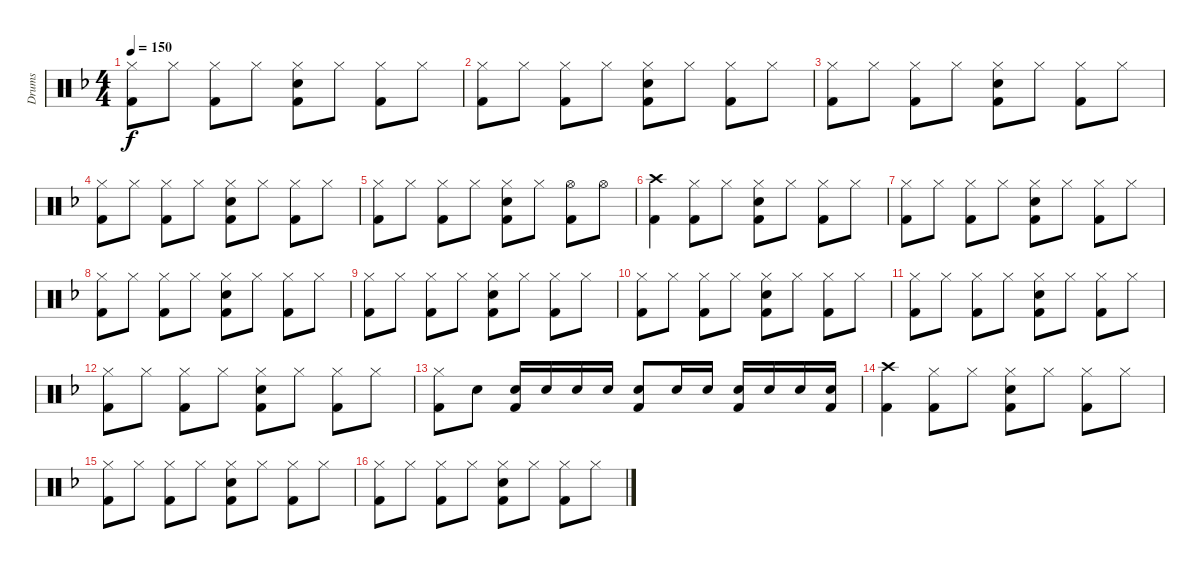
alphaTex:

\track ("Drums" "Drums") {instrument percussion}
\staff {score}
\articulation defaults
\ts (4 4)
\tempo 150
\clef neutral
\ks f
("Hi-Hat (closed)" "Kick (hit) 2").8{dy f} "Hi-Hat (closed)".8 ("Hi-Hat (closed)" "Kick (hit) 2").8 "Hi-Hat (closed)".8 ("Hi-Hat (closed)" "Electric Snare (hit)" "Kick (hit) 2").8 "Hi-Hat (closed)".8 ("Hi-Hat (closed)" "Kick (hit) 2").8 "Hi-Hat (closed)".8 |
("Hi-Hat (closed)" "Kick (hit) 2").8 "Hi-Hat (closed)".8 ("Hi-Hat (closed)" "Kick (hit) 2").8 "Hi-Hat (closed)".8 ("Hi-Hat (closed)" "Electric Snare (hit)" "Kick (hit) 2").8 "Hi-Hat (closed)".8 ("Hi-Hat (closed)" "Kick (hit) 2").8 "Hi-Hat (closed)".8 |
("Hi-Hat (closed)" "Kick (hit) 2").8 "Hi-Hat (closed)".8 ("Hi-Hat (closed)" "Kick (hit) 2").8 "Hi-Hat (closed)".8 ("Hi-Hat (closed)" "Electric Snare (hit)" "Kick (hit) 2").8 "Hi-Hat (closed)".8 ("Hi-Hat (closed)" "Kick (hit) 2").8 "Hi-Hat (closed)".8 |
("Hi-Hat (closed)" "Kick (hit) 2").8 "Hi-Hat (closed)".8 ("Hi-Hat (closed)" "Kick (hit) 2").8 "Hi-Hat (closed)".8 ("Hi-Hat (closed)" "Electric Snare (hit)" "Kick (hit) 2").8 "Hi-Hat (closed)".8 ("Hi-Hat (closed)" "Kick (hit) 2").8 "Hi-Hat (closed)".8 |
("Hi-Hat (closed)" "Kick (hit) 2").8 "Hi-Hat (closed)".8 ("Hi-Hat (closed)" "Kick (hit) 2").8 "Hi-Hat (closed)".8 ("Hi-Hat (closed)" "Electric Snare (hit)" "Kick (hit) 2").8 "Hi-Hat (closed)".8 ("Hi-Hat (open)" "Kick (hit) 2").8 "Hi-Hat (open)".8 |
("Crash high (hit)" "Kick (hit) 2").4 ("Hi-Hat (closed)" "Kick (hit) 2").8 "Hi-Hat (closed)".8 ("Hi-Hat (closed)" "Electric Snare (hit)" "Kick (hit) 2").8 "Hi-Hat (closed)".8 ("Hi-Hat (closed)" "Kick (hit) 2").8 "Hi-Hat (closed)".8 |
("Hi-Hat (closed)" "Kick (hit) 2").8 "Hi-Hat (closed)".8 ("Hi-Hat (closed)" "Kick (hit) 2").8 "Hi-Hat (closed)".8 ("Hi-Hat (closed)" "Electric Snare (hit)" "Kick (hit) 2").8 "Hi-Hat (closed)".8 ("Hi-Hat (closed)" "Kick (hit) 2").8 "Hi-Hat (closed)".8 |
("Hi-Hat (closed)" "Kick (hit) 2").8 "Hi-Hat (closed)".8 ("Hi-Hat (closed)" "Kick (hit) 2").8 "Hi-Hat (closed)".8 ("Hi-Hat (closed)" "Electric Snare (hit)" "Kick (hit) 2").8 "Hi-Hat (closed)".8 ("Hi-Hat (closed)" "Kick (hit) 2").8 "Hi-Hat (closed)".8 |
("Hi-Hat (closed)" "Kick (hit) 2").8 "Hi-Hat (closed)".8 ("Hi-Hat (closed)" "Kick (hit) 2").8 "Hi-Hat (closed)".8 ("Hi-Hat (closed)" "Electric Snare (hit)" "Kick (hit) 2").8 "Hi-Hat (closed)".8 ("Hi-Hat (closed)" "Kick (hit) 2").8 "Hi-Hat (closed)".8 |
("Hi-Hat (closed)" "Kick (hit) 2").8 "Hi-Hat (closed)".8 ("Hi-Hat (closed)" "Kick (hit) 2").8 "Hi-Hat (closed)".8 ("Hi-Hat (closed)" "Electric Snare (hit)" "Kick (hit) 2").8 "Hi-Hat (closed)".8 ("Hi-Hat (closed)" "Kick (hit) 2").8 "Hi-Hat (closed)".8 |
("Hi-Hat (closed)" "Kick (hit) 2").8 "Hi-Hat (closed)".8 ("Hi-Hat (closed)" "Kick (hit) 2").8 "Hi-Hat (closed)".8 ("Hi-Hat (closed)" "Electric Snare (hit)" "Kick (hit) 2").8 "Hi-Hat (closed)".8 ("Hi-Hat (closed)" "Kick (hit) 2").8 "Hi-Hat (closed)".8 |
("Hi-Hat (closed)" "Kick (hit) 2").8 "Hi-Hat (closed)".8 ("Hi-Hat (closed)" "Kick (hit) 2").8 "Hi-Hat (closed)".8 ("Hi-Hat (closed)" "Electric Snare (hit)" "Kick (hit) 2").8 "Hi-Hat (closed)".8 ("Hi-Hat (closed)" "Kick (hit) 2").8 "Hi-Hat (closed)".8 |
("Hi-Hat (closed)" "Kick (hit) 2").8 "Electric Snare (hit)".8 ("Electric Snare (hit)" "Kick (hit) 2").16 "Electric Snare (hit)".16 "Electric Snare (hit)".16 "Electric Snare (hit)".16 ("Electric Snare (hit)" "Kick (hit) 2").8 "Electric Snare (hit)".16 "Electric Snare (hit)".16 ("Electric Snare (hit)" "Kick (hit) 2").16 "Electric Snare (hit)".16 "Electric Snare (hit)".16 ("Electric Snare (hit)" "Kick (hit) 2").16 |
("Crash high (hit)" "Kick (hit) 2").4 ("Hi-Hat (closed)" "Kick (hit) 2").8 "Hi-Hat (closed)".8 ("Hi-Hat (closed)" "Electric Snare (hit)" "Kick (hit) 2").8 "Hi-Hat (closed)".8 ("Hi-Hat (closed)" "Kick (hit) 2").8 "Hi-Hat (closed)".8 |
("Hi-Hat (closed)" "Kick (hit) 2").8 "Hi-Hat (closed)".8 ("Hi-Hat (closed)" "Kick (hit) 2").8 "Hi-Hat (closed)".8 ("Hi-Hat (closed)" "Electric Snare (hit)" "Kick (hit) 2").8 "Hi-Hat (closed)".8 ("Hi-Hat (closed)" "Kick (hit) 2").8 "Hi-Hat (closed)".8 |
("Hi-Hat (closed)" "Kick (hit) 2").8 "Hi-Hat (closed)".8 ("Hi-Hat (closed)" "Kick (hit) 2").8 "Hi-Hat (closed)".8 ("Hi-Hat (closed)" "Electric Snare (hit)" "Kick (hit) 2").8 "Hi-Hat (closed)".8 ("Hi-Hat (closed)" "Kick (hit) 2").8 "Hi-Hat (closed)".8
